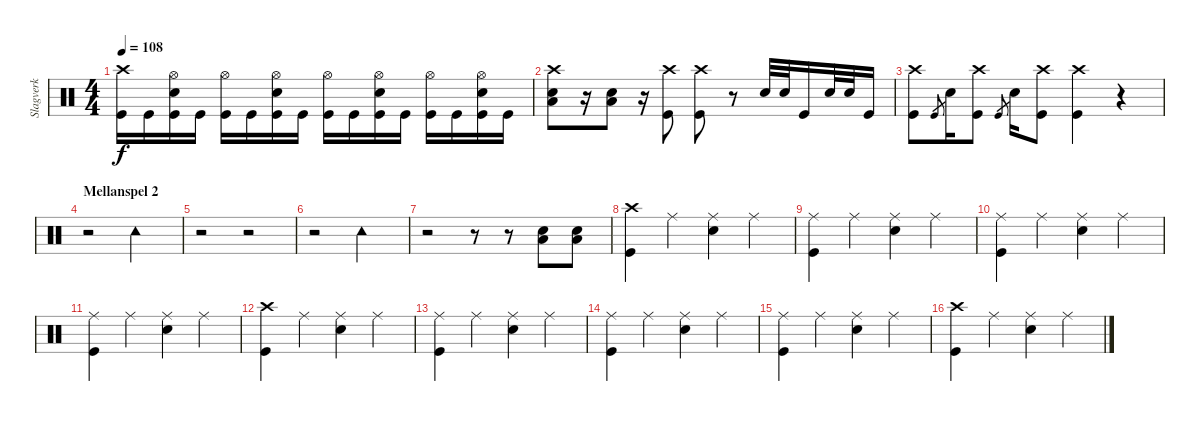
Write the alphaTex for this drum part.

\track ("Slagverk" "Slagverk") {instrument percussion}
\staff {score}
\articulation defaults
\ts (4 4)
\tempo 108
\clef neutral
\ks c
("Crash high (hit)" "Kick (hit)").16{dy f} "Kick (hit)".16 ("Hi-Hat (open)" "Electric Snare (hit)" "Kick (hit)").16 "Kick (hit)".16 ("Hi-Hat (open)" "Kick (hit)").16 "Kick (hit)".16 ("Hi-Hat (open)" "Electric Snare (hit)" "Kick (hit)").16 "Kick (hit)".16 ("Hi-Hat (open)" "Kick (hit)").16 "Kick (hit)".16 ("Hi-Hat (open)" "Electric Snare (hit)" "Kick (hit)").16 "Kick (hit)".16 ("Hi-Hat (open)" "Kick (hit)").16 "Kick (hit)".16 ("Hi-Hat (open)" "Electric Snare (hit)" "Kick (hit)").16 "Kick (hit)".16 |
("Crash high (hit)" "Low Floor Tom (hit)" "Electric Snare (hit)").8 r.16 ("Low Floor Tom (hit)" "Electric Snare (hit)").8 r.16 ("Crash high (hit)" "Kick (hit)").8 ("Crash high (hit)" "Kick (hit)").8 r.8 "Electric Snare (hit)".32 "Electric Snare (hit)".32 "Kick (hit)".16 "Electric Snare (hit)".32 "Electric Snare (hit)".32 "Kick (hit)".16 |
("Crash high (hit)" "Kick (hit)").8 "Kick (hit)"{sl}.8{gr} "Electric Snare (hit)".16 ("Crash high (hit)" "Kick (hit)").8 "Kick (hit)"{sl}.8{gr} "Electric Snare (hit)".16 ("Crash high (hit)" "Kick (hit)").8 ("Crash high (hit)" "Kick (hit)").4 r.4 |
\section ("" "Mellanspel 2")
r.2 "Tambourine (hit)".2 |
r.2 r.2 |
r.2 "Tambourine (hit)".2 |
r.2 r.8 r.8 ("Low Floor Tom (hit)" "Electric Snare (hit)").8 ("Low Floor Tom (hit)" "Electric Snare (hit)").8 |
("Crash high (hit)" "Kick (hit)").4 "Ride (middle)".4 ("Ride (middle)" "Electric Snare (hit)").4 "Ride (middle)".4 |
("Ride (middle)" "Kick (hit)").4 "Ride (middle)".4 ("Ride (middle)" "Electric Snare (hit)").4 "Ride (middle)".4 |
("Ride (middle)" "Kick (hit)").4 "Ride (middle)".4 ("Ride (middle)" "Electric Snare (hit)").4 "Ride (middle)".4 |
("Ride (middle)" "Kick (hit)").4 "Ride (middle)".4 ("Ride (middle)" "Electric Snare (hit)").4 "Ride (middle)".4 |
("Crash high (hit)" "Kick (hit)").4 "Ride (middle)".4 ("Ride (middle)" "Electric Snare (hit)").4 "Ride (middle)".4 |
("Ride (middle)" "Kick (hit)").4 "Ride (middle)".4 ("Ride (middle)" "Electric Snare (hit)").4 "Ride (middle)".4 |
("Ride (middle)" "Kick (hit)").4 "Ride (middle)".4 ("Ride (middle)" "Electric Snare (hit)").4 "Ride (middle)".4 |
("Ride (middle)" "Kick (hit)").4 "Ride (middle)".4 ("Ride (middle)" "Electric Snare (hit)").4 "Ride (middle)".4 |
("Crash high (hit)" "Kick (hit)").4 "Ride (middle)".4 ("Ride (middle)" "Electric Snare (hit)").4 "Ride (middle)".4
